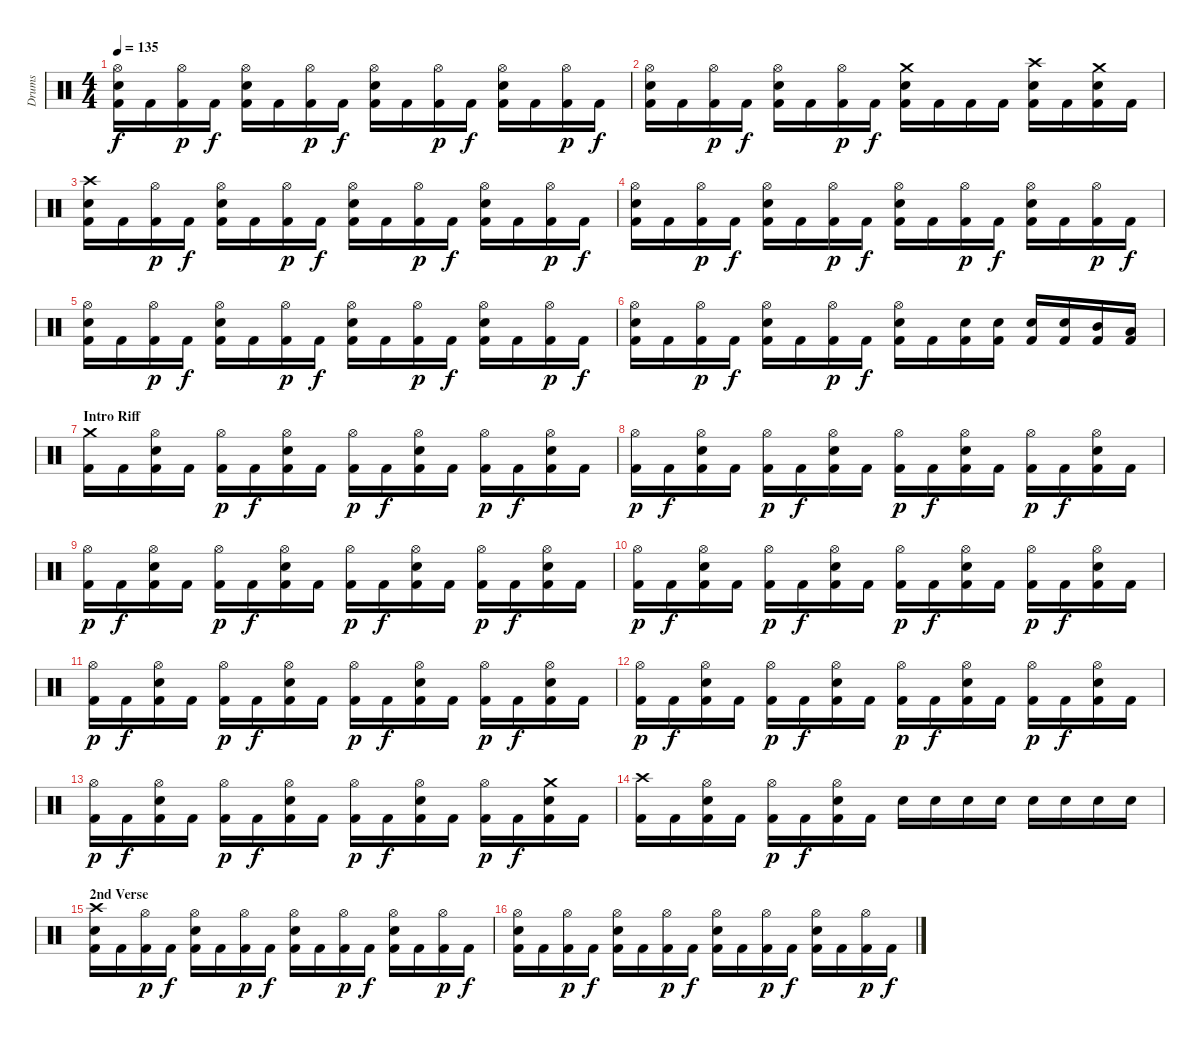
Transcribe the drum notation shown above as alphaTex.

\track ("Drums" "Drums") {instrument percussion}
\staff {score}
\articulation defaults
\ts (4 4)
\tempo 135
\clef neutral
\ks c
("Hi-Hat (open)" "Snare (hit) 2" "Kick (hit) 2").16{dy f} "Kick (hit) 2".16 ("Hi-Hat (open)" "Kick (hit) 2").16{dy p} "Kick (hit) 2".16{dy f} ("Hi-Hat (open)" "Snare (hit) 2" "Kick (hit) 2").16 "Kick (hit) 2".16 ("Hi-Hat (open)" "Kick (hit) 2").16{dy p} "Kick (hit) 2".16{dy f} ("Hi-Hat (open)" "Snare (hit) 2" "Kick (hit) 2").16 "Kick (hit) 2".16 ("Hi-Hat (open)" "Kick (hit) 2").16{dy p} "Kick (hit) 2".16{dy f} ("Hi-Hat (open)" "Snare (hit) 2" "Kick (hit) 2").16 "Kick (hit) 2".16 ("Hi-Hat (open)" "Kick (hit) 2").16{dy p} "Kick (hit) 2".16{dy f} |
("Hi-Hat (open)" "Snare (hit) 2" "Kick (hit) 2").16 "Kick (hit) 2".16 ("Hi-Hat (open)" "Kick (hit) 2").16{dy p} "Kick (hit) 2".16{dy f} ("Hi-Hat (open)" "Snare (hit) 2" "Kick (hit) 2").16 "Kick (hit) 2".16 ("Hi-Hat (open)" "Kick (hit) 2").16{dy p} "Kick (hit) 2".16{dy f} ("Crash medium (hit)" "Snare (hit) 2" "Kick (hit) 2").16 "Kick (hit) 2".16 "Kick (hit) 2".16 "Kick (hit) 2".16 ("Crash high (hit)" "Snare (hit) 2" "Kick (hit) 2").16 "Kick (hit) 2".16 ("Crash medium (hit)" "Snare (hit) 2" "Kick (hit) 2").16 "Kick (hit) 2".16 |
("Crash high (hit)" "Snare (hit) 2" "Kick (hit) 2").16 "Kick (hit) 2".16 ("Hi-Hat (open)" "Kick (hit) 2").16{dy p} "Kick (hit) 2".16{dy f} ("Hi-Hat (open)" "Snare (hit) 2" "Kick (hit) 2").16 "Kick (hit) 2".16 ("Hi-Hat (open)" "Kick (hit) 2").16{dy p} "Kick (hit) 2".16{dy f} ("Hi-Hat (open)" "Snare (hit) 2" "Kick (hit) 2").16 "Kick (hit) 2".16 ("Hi-Hat (open)" "Kick (hit) 2").16{dy p} "Kick (hit) 2".16{dy f} ("Hi-Hat (open)" "Snare (hit) 2" "Kick (hit) 2").16 "Kick (hit) 2".16 ("Hi-Hat (open)" "Kick (hit) 2").16{dy p} "Kick (hit) 2".16{dy f} |
("Hi-Hat (open)" "Snare (hit) 2" "Kick (hit) 2").16 "Kick (hit) 2".16 ("Hi-Hat (open)" "Kick (hit) 2").16{dy p} "Kick (hit) 2".16{dy f} ("Hi-Hat (open)" "Snare (hit) 2" "Kick (hit) 2").16 "Kick (hit) 2".16 ("Hi-Hat (open)" "Kick (hit) 2").16{dy p} "Kick (hit) 2".16{dy f} ("Hi-Hat (open)" "Snare (hit) 2" "Kick (hit) 2").16 "Kick (hit) 2".16 ("Hi-Hat (open)" "Kick (hit) 2").16{dy p} "Kick (hit) 2".16{dy f} ("Hi-Hat (open)" "Snare (hit) 2" "Kick (hit) 2").16 "Kick (hit) 2".16 ("Hi-Hat (open)" "Kick (hit) 2").16{dy p} "Kick (hit) 2".16{dy f} |
("Hi-Hat (open)" "Snare (hit) 2" "Kick (hit) 2").16 "Kick (hit) 2".16 ("Hi-Hat (open)" "Kick (hit) 2").16{dy p} "Kick (hit) 2".16{dy f} ("Hi-Hat (open)" "Snare (hit) 2" "Kick (hit) 2").16 "Kick (hit) 2".16 ("Hi-Hat (open)" "Kick (hit) 2").16{dy p} "Kick (hit) 2".16{dy f} ("Hi-Hat (open)" "Snare (hit) 2" "Kick (hit) 2").16 "Kick (hit) 2".16 ("Hi-Hat (open)" "Kick (hit) 2").16{dy p} "Kick (hit) 2".16{dy f} ("Hi-Hat (open)" "Snare (hit) 2" "Kick (hit) 2").16 "Kick (hit) 2".16 ("Hi-Hat (open)" "Kick (hit) 2").16{dy p} "Kick (hit) 2".16{dy f} |
("Hi-Hat (open)" "Snare (hit) 2" "Kick (hit) 2").16 "Kick (hit) 2".16 ("Hi-Hat (open)" "Kick (hit) 2").16{dy p} "Kick (hit) 2".16{dy f} ("Hi-Hat (open)" "Snare (hit) 2" "Kick (hit) 2").16 "Kick (hit) 2".16 ("Hi-Hat (open)" "Kick (hit) 2").16{dy p} "Kick (hit) 2".16{dy f} ("Hi-Hat (open)" "Snare (hit) 2" "Kick (hit) 2").16 "Kick (hit) 2".16 ("Snare (hit) 2" "Kick (hit) 2").16 ("Snare (hit) 2" "Kick (hit) 2").16 ("Snare (hit) 2" "Kick (hit) 2").16 ("Snare (hit) 2" "Kick (hit) 2").16 ("Mid Tom (hit)" "Kick (hit) 2").16 ("Low Tom (hit)" "Kick (hit) 2").16 |
\section ("" "Intro Riff")
("Crash medium (hit)" "Kick (hit) 2").16 "Kick (hit) 2".16 ("Hi-Hat (open)" "Snare (hit) 2" "Kick (hit) 2").16 "Kick (hit) 2".16 ("Hi-Hat (open)" "Kick (hit) 2").16{dy p} "Kick (hit) 2".16{dy f} ("Hi-Hat (open)" "Snare (hit) 2" "Kick (hit) 2").16 "Kick (hit) 2".16 ("Hi-Hat (open)" "Kick (hit) 2").16{dy p} "Kick (hit) 2".16{dy f} ("Hi-Hat (open)" "Snare (hit) 2" "Kick (hit) 2").16 "Kick (hit) 2".16 ("Hi-Hat (open)" "Kick (hit) 2").16{dy p} "Kick (hit) 2".16{dy f} ("Hi-Hat (open)" "Snare (hit) 2" "Kick (hit) 2").16 "Kick (hit) 2".16 |
("Hi-Hat (open)" "Kick (hit) 2").16{dy p} "Kick (hit) 2".16{dy f} ("Hi-Hat (open)" "Snare (hit) 2" "Kick (hit) 2").16 "Kick (hit) 2".16 ("Hi-Hat (open)" "Kick (hit) 2").16{dy p} "Kick (hit) 2".16{dy f} ("Hi-Hat (open)" "Snare (hit) 2" "Kick (hit) 2").16 "Kick (hit) 2".16 ("Hi-Hat (open)" "Kick (hit) 2").16{dy p} "Kick (hit) 2".16{dy f} ("Hi-Hat (open)" "Snare (hit) 2" "Kick (hit) 2").16 "Kick (hit) 2".16 ("Hi-Hat (open)" "Kick (hit) 2").16{dy p} "Kick (hit) 2".16{dy f} ("Hi-Hat (open)" "Snare (hit) 2" "Kick (hit) 2").16 "Kick (hit) 2".16 |
("Hi-Hat (open)" "Kick (hit) 2").16{dy p} "Kick (hit) 2".16{dy f} ("Hi-Hat (open)" "Snare (hit) 2" "Kick (hit) 2").16 "Kick (hit) 2".16 ("Hi-Hat (open)" "Kick (hit) 2").16{dy p} "Kick (hit) 2".16{dy f} ("Hi-Hat (open)" "Snare (hit) 2" "Kick (hit) 2").16 "Kick (hit) 2".16 ("Hi-Hat (open)" "Kick (hit) 2").16{dy p} "Kick (hit) 2".16{dy f} ("Hi-Hat (open)" "Snare (hit) 2" "Kick (hit) 2").16 "Kick (hit) 2".16 ("Hi-Hat (open)" "Kick (hit) 2").16{dy p} "Kick (hit) 2".16{dy f} ("Hi-Hat (open)" "Snare (hit) 2" "Kick (hit) 2").16 "Kick (hit) 2".16 |
("Hi-Hat (open)" "Kick (hit) 2").16{dy p} "Kick (hit) 2".16{dy f} ("Hi-Hat (open)" "Snare (hit) 2" "Kick (hit) 2").16 "Kick (hit) 2".16 ("Hi-Hat (open)" "Kick (hit) 2").16{dy p} "Kick (hit) 2".16{dy f} ("Hi-Hat (open)" "Snare (hit) 2" "Kick (hit) 2").16 "Kick (hit) 2".16 ("Hi-Hat (open)" "Kick (hit) 2").16{dy p} "Kick (hit) 2".16{dy f} ("Hi-Hat (open)" "Snare (hit) 2" "Kick (hit) 2").16 "Kick (hit) 2".16 ("Hi-Hat (open)" "Kick (hit) 2").16{dy p} "Kick (hit) 2".16{dy f} ("Hi-Hat (open)" "Snare (hit) 2" "Kick (hit) 2").16 "Kick (hit) 2".16 |
("Hi-Hat (open)" "Kick (hit) 2").16{dy p} "Kick (hit) 2".16{dy f} ("Hi-Hat (open)" "Snare (hit) 2" "Kick (hit) 2").16 "Kick (hit) 2".16 ("Hi-Hat (open)" "Kick (hit) 2").16{dy p} "Kick (hit) 2".16{dy f} ("Hi-Hat (open)" "Snare (hit) 2" "Kick (hit) 2").16 "Kick (hit) 2".16 ("Hi-Hat (open)" "Kick (hit) 2").16{dy p} "Kick (hit) 2".16{dy f} ("Hi-Hat (open)" "Snare (hit) 2" "Kick (hit) 2").16 "Kick (hit) 2".16 ("Hi-Hat (open)" "Kick (hit) 2").16{dy p} "Kick (hit) 2".16{dy f} ("Hi-Hat (open)" "Snare (hit) 2" "Kick (hit) 2").16 "Kick (hit) 2".16 |
("Hi-Hat (open)" "Kick (hit) 2").16{dy p} "Kick (hit) 2".16{dy f} ("Hi-Hat (open)" "Snare (hit) 2" "Kick (hit) 2").16 "Kick (hit) 2".16 ("Hi-Hat (open)" "Kick (hit) 2").16{dy p} "Kick (hit) 2".16{dy f} ("Hi-Hat (open)" "Snare (hit) 2" "Kick (hit) 2").16 "Kick (hit) 2".16 ("Hi-Hat (open)" "Kick (hit) 2").16{dy p} "Kick (hit) 2".16{dy f} ("Hi-Hat (open)" "Snare (hit) 2" "Kick (hit) 2").16 "Kick (hit) 2".16 ("Hi-Hat (open)" "Kick (hit) 2").16{dy p} "Kick (hit) 2".16{dy f} ("Hi-Hat (open)" "Snare (hit) 2" "Kick (hit) 2").16 "Kick (hit) 2".16 |
("Hi-Hat (open)" "Kick (hit) 2").16{dy p} "Kick (hit) 2".16{dy f} ("Hi-Hat (open)" "Snare (hit) 2" "Kick (hit) 2").16 "Kick (hit) 2".16 ("Hi-Hat (open)" "Kick (hit) 2").16{dy p} "Kick (hit) 2".16{dy f} ("Hi-Hat (open)" "Snare (hit) 2" "Kick (hit) 2").16 "Kick (hit) 2".16 ("Hi-Hat (open)" "Kick (hit) 2").16{dy p} "Kick (hit) 2".16{dy f} ("Hi-Hat (open)" "Snare (hit) 2" "Kick (hit) 2").16 "Kick (hit) 2".16 ("Hi-Hat (open)" "Kick (hit) 2").16{dy p} "Kick (hit) 2".16{dy f} ("Crash medium (hit)" "Snare (hit) 2" "Kick (hit) 2").16 "Kick (hit) 2".16 |
("Crash high (hit)" "Kick (hit) 2").16 "Kick (hit) 2".16 ("Hi-Hat (open)" "Snare (hit) 2" "Kick (hit) 2").16 "Kick (hit) 2".16 ("Hi-Hat (open)" "Kick (hit) 2").16{dy p} "Kick (hit) 2".16{dy f} ("Hi-Hat (open)" "Snare (hit) 2" "Kick (hit) 2").16 "Kick (hit) 2".16 "Snare (hit) 2".16 "Snare (hit) 2".16 "Snare (hit) 2".16 "Snare (hit) 2".16 "Snare (hit) 2".16 "Snare (hit) 2".16 "Snare (hit) 2".16 "Snare (hit) 2".16 |
\section ("" "2nd Verse")
("Crash high (hit)" "Snare (hit) 2" "Kick (hit) 2").16 "Kick (hit) 2".16 ("Hi-Hat (open)" "Kick (hit) 2").16{dy p} "Kick (hit) 2".16{dy f} ("Hi-Hat (open)" "Snare (hit) 2" "Kick (hit) 2").16 "Kick (hit) 2".16 ("Hi-Hat (open)" "Kick (hit) 2").16{dy p} "Kick (hit) 2".16{dy f} ("Hi-Hat (open)" "Snare (hit) 2" "Kick (hit) 2").16 "Kick (hit) 2".16 ("Hi-Hat (open)" "Kick (hit) 2").16{dy p} "Kick (hit) 2".16{dy f} ("Hi-Hat (open)" "Snare (hit) 2" "Kick (hit) 2").16 "Kick (hit) 2".16 ("Hi-Hat (open)" "Kick (hit) 2").16{dy p} "Kick (hit) 2".16{dy f} |
("Hi-Hat (open)" "Snare (hit) 2" "Kick (hit) 2").16 "Kick (hit) 2".16 ("Hi-Hat (open)" "Kick (hit) 2").16{dy p} "Kick (hit) 2".16{dy f} ("Hi-Hat (open)" "Snare (hit) 2" "Kick (hit) 2").16 "Kick (hit) 2".16 ("Hi-Hat (open)" "Kick (hit) 2").16{dy p} "Kick (hit) 2".16{dy f} ("Hi-Hat (open)" "Snare (hit) 2" "Kick (hit) 2").16 "Kick (hit) 2".16 ("Hi-Hat (open)" "Kick (hit) 2").16{dy p} "Kick (hit) 2".16{dy f} ("Hi-Hat (open)" "Snare (hit) 2" "Kick (hit) 2").16 "Kick (hit) 2".16 ("Hi-Hat (open)" "Kick (hit) 2").16{dy p} "Kick (hit) 2".16{dy f}
